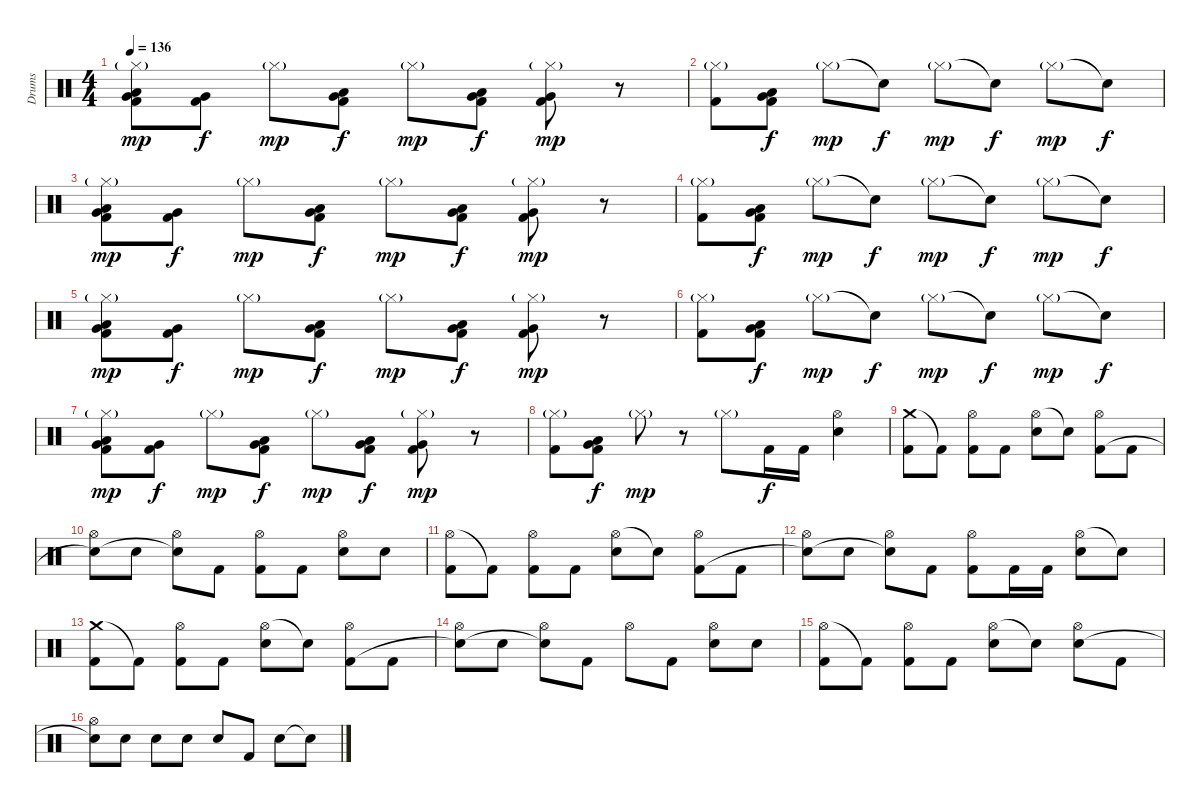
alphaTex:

\track ("Drums" "Drums") {instrument percussion}
\staff {score}
\articulation defaults
\ts (4 4)
\tempo 136
\clef neutral
\ks c
("Kick (hit) 2" "Low Tom (hit)" "Very Low Tom (hit)" "Hi-Hat (closed)"{g}).8{dy mp} ("Kick (hit) 2" "Very Low Tom (hit)").8{dy f} "Hi-Hat (closed)"{g}.8{dy mp} ("Kick (hit) 2" "Low Tom (hit)" "Very Low Tom (hit)").8{dy f} "Hi-Hat (closed)"{g}.8{dy mp} ("Kick (hit) 2" "Low Tom (hit)" "Very Low Tom (hit)").8{dy f} ("Kick (hit) 2" "Very Low Tom (hit)" "Hi-Hat (closed)"{g}).8{dy mp} r.8 |
("Kick (hit) 2" "Hi-Hat (closed)"{g}).8 ("Kick (hit) 2" "Low Tom (hit)" "Very Low Tom (hit)").8{dy f} "Hi-Hat (closed)"{g}.8{dy mp} "Snare (hit)"{t}.8{dy f} "Hi-Hat (closed)"{g}.8{dy mp} "Snare (hit)"{t}.8{dy f} "Hi-Hat (closed)"{g}.8{dy mp} "Snare (hit)"{t}.8{dy f} |
("Kick (hit) 2" "Low Tom (hit)" "Very Low Tom (hit)" "Hi-Hat (closed)"{g}).8{dy mp} ("Kick (hit) 2" "Very Low Tom (hit)").8{dy f} "Hi-Hat (closed)"{g}.8{dy mp} ("Kick (hit) 2" "Low Tom (hit)" "Very Low Tom (hit)").8{dy f} "Hi-Hat (closed)"{g}.8{dy mp} ("Kick (hit) 2" "Low Tom (hit)" "Very Low Tom (hit)").8{dy f} ("Kick (hit) 2" "Very Low Tom (hit)" "Hi-Hat (closed)"{g}).8{dy mp} r.8 |
("Kick (hit) 2" "Hi-Hat (closed)"{g}).8 ("Kick (hit) 2" "Low Tom (hit)" "Very Low Tom (hit)").8{dy f} "Hi-Hat (closed)"{g}.8{dy mp} "Snare (hit)"{t}.8{dy f} "Hi-Hat (closed)"{g}.8{dy mp} "Snare (hit)"{t}.8{dy f} "Hi-Hat (closed)"{g}.8{dy mp} "Snare (hit)"{t}.8{dy f} |
("Kick (hit) 2" "Low Tom (hit)" "Very Low Tom (hit)" "Hi-Hat (closed)"{g}).8{dy mp} ("Kick (hit) 2" "Very Low Tom (hit)").8{dy f} "Hi-Hat (closed)"{g}.8{dy mp} ("Kick (hit) 2" "Low Tom (hit)" "Very Low Tom (hit)").8{dy f} "Hi-Hat (closed)"{g}.8{dy mp} ("Kick (hit) 2" "Low Tom (hit)" "Very Low Tom (hit)").8{dy f} ("Kick (hit) 2" "Very Low Tom (hit)" "Hi-Hat (closed)"{g}).8{dy mp} r.8 |
("Kick (hit) 2" "Hi-Hat (closed)"{g}).8 ("Kick (hit) 2" "Low Tom (hit)" "Very Low Tom (hit)").8{dy f} "Hi-Hat (closed)"{g}.8{dy mp} "Snare (hit)"{t}.8{dy f} "Hi-Hat (closed)"{g}.8{dy mp} "Snare (hit)"{t}.8{dy f} "Hi-Hat (closed)"{g}.8{dy mp} "Snare (hit)"{t}.8{dy f} |
("Kick (hit) 2" "Low Tom (hit)" "Very Low Tom (hit)" "Hi-Hat (closed)"{g}).8{dy mp} ("Kick (hit) 2" "Very Low Tom (hit)").8{dy f} "Hi-Hat (closed)"{g}.8{dy mp} ("Kick (hit) 2" "Low Tom (hit)" "Very Low Tom (hit)").8{dy f} "Hi-Hat (closed)"{g}.8{dy mp} ("Kick (hit) 2" "Low Tom (hit)" "Very Low Tom (hit)").8{dy f} ("Kick (hit) 2" "Very Low Tom (hit)" "Hi-Hat (closed)"{g}).8{dy mp} r.8 |
("Kick (hit) 2" "Hi-Hat (closed)"{g}).8 ("Kick (hit) 2" "Low Tom (hit)" "Very Low Tom (hit)").8{dy f} "Hi-Hat (closed)"{g}.8{dy mp} r.8 "Hi-Hat (closed)"{g}.8 "Kick (hit) 2".16{dy f} "Kick (hit) 2".16 ("Electric Snare (hit)" "Hi-Hat (open)").4 |
("Crash medium (hit)" "Kick (hit) 2").8 "Kick (hit) 2"{t}.8 ("Hi-Hat (open)" "Kick (hit) 2").8 "Kick (hit) 2".8 ("Hi-Hat (open)" "Electric Snare (hit)").8 "Snare (hit)"{t}.8 ("Hi-Hat (open)" "Kick (hit) 2").8 "Kick (hit) 2".8 |
("Hi-Hat (open)" "Snare (hit)"{t}).8 "Electric Snare (hit)".8 ("Hi-Hat (open)" "Snare (hit)"{t}).8 "Kick (hit) 2".8 ("Hi-Hat (open)" "Kick (hit) 2").8 "Kick (hit) 2".8 ("Hi-Hat (open)" "Electric Snare (hit)").8 "Electric Snare (hit)".8 |
("Hi-Hat (open)" "Kick (hit) 2").8 "Kick (hit) 2"{t}.8 ("Hi-Hat (open)" "Kick (hit) 2").8 "Kick (hit) 2".8 ("Hi-Hat (open)" "Electric Snare (hit)").8 "Snare (hit)"{t}.8 ("Hi-Hat (open)" "Kick (hit) 2").8 "Kick (hit) 2".8 |
("Hi-Hat (open)" "Snare (hit)"{t}).8 "Electric Snare (hit)".8 ("Hi-Hat (open)" "Snare (hit)"{t}).8 "Kick (hit) 2".8 ("Hi-Hat (open)" "Kick (hit) 2").8 "Kick (hit) 2".16 "Kick (hit) 2".16 ("Hi-Hat (open)" "Electric Snare (hit)").8 "Electric Snare (hit)"{t}.8 |
("Crash medium (hit)" "Kick (hit) 2").8 "Kick (hit) 2"{t}.8 ("Hi-Hat (open)" "Kick (hit) 2").8 "Kick (hit) 2".8 ("Hi-Hat (open)" "Electric Snare (hit)").8 "Snare (hit)"{t}.8 ("Hi-Hat (open)" "Kick (hit) 2").8 "Kick (hit) 2".8 |
("Hi-Hat (open)" "Snare (hit)"{t}).8 "Electric Snare (hit)".8 ("Hi-Hat (open)" "Snare (hit)"{t}).8 "Kick (hit) 2".8 "Hi-Hat (open)".8 "Kick (hit) 2".8 ("Hi-Hat (open)" "Electric Snare (hit)").8 "Electric Snare (hit)".8 |
("Hi-Hat (open)" "Kick (hit) 2").8 "Kick (hit) 2"{t}.8 ("Hi-Hat (open)" "Kick (hit) 2").8 "Kick (hit) 2".8 ("Hi-Hat (open)" "Electric Snare (hit)").8 "Snare (hit)"{t}.8 ("Hi-Hat (open)" "Electric Snare (hit)").8 "Kick (hit) 2".8 |
("Hi-Hat (open)" "Snare (hit)"{t}).8 "Electric Snare (hit)".8 "Electric Snare (hit)".8 "Electric Snare (hit)".8 "Electric Snare (hit)".8 "Kick (hit) 2".8 "Electric Snare (hit)".8 "Snare (hit)"{t}.8
